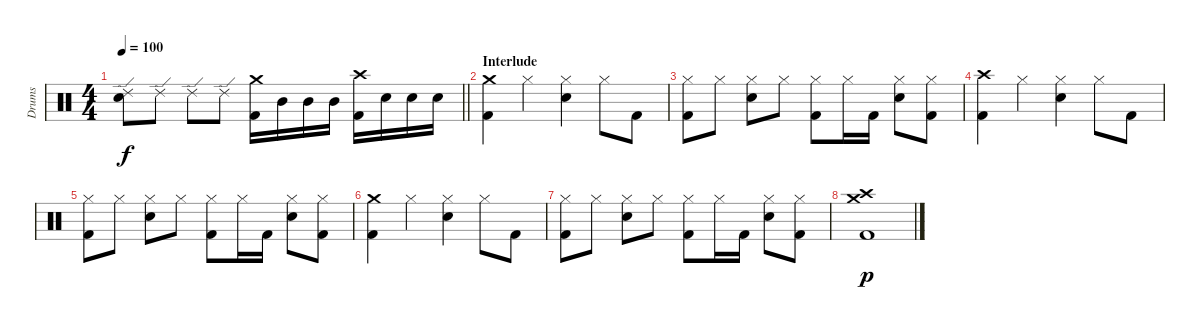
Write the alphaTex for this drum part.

\track ("Drums" "Drums") {instrument percussion}
\staff {score}
\articulation defaults
\ts (4 4)
\tempo 100
\clef neutral
\barLineRight lightlight
\ks c
("Snare (hit) 2" "Ride (edge) 2").8{dy f} "Ride (edge) 2".8 "Ride (edge) 2".8 "Ride (edge) 2".8 ("Kick (hit) 2" "Crash medium (hit)").16 "Mid Tom (hit)".16 "Mid Tom (hit)".16 "Mid Tom (hit)".16 ("Kick (hit) 2" "Crash high (hit)").16 "Snare (hit) 2".16 "Snare (hit) 2".16 "Snare (hit) 2".16 |
\section ("" "Interlude")
("Kick (hit) 2" "Crash medium (hit)").4 "Hi-Hat (closed)".4 ("Snare (hit) 2" "Hi-Hat (closed)").4 "Hi-Hat (closed)".8 "Kick (hit) 2".8 |
("Kick (hit) 2" "Hi-Hat (closed)").8 "Hi-Hat (closed)".8 ("Snare (hit) 2" "Hi-Hat (closed)").8 "Hi-Hat (closed)".8 ("Kick (hit) 2" "Hi-Hat (closed)").8 "Hi-Hat (closed)".16 "Kick (hit) 2".16 ("Snare (hit) 2" "Hi-Hat (closed)").8 ("Kick (hit) 2" "Hi-Hat (closed)").8 |
("Kick (hit) 2" "Crash high (hit)").4 "Hi-Hat (closed)".4 ("Snare (hit) 2" "Hi-Hat (closed)").4 "Hi-Hat (closed)".8 "Kick (hit) 2".8 |
("Kick (hit) 2" "Hi-Hat (closed)").8 "Hi-Hat (closed)".8 ("Snare (hit) 2" "Hi-Hat (closed)").8 "Hi-Hat (closed)".8 ("Kick (hit) 2" "Hi-Hat (closed)").8 "Hi-Hat (closed)".16 "Kick (hit) 2".16 ("Snare (hit) 2" "Hi-Hat (closed)").8 ("Kick (hit) 2" "Hi-Hat (closed)").8 |
("Kick (hit) 2" "Crash medium (hit)").4 "Hi-Hat (closed)".4 ("Snare (hit) 2" "Hi-Hat (closed)").4 "Hi-Hat (closed)".8 "Kick (hit) 2".8 |
("Kick (hit) 2" "Hi-Hat (closed)").8 "Hi-Hat (closed)".8 ("Snare (hit) 2" "Hi-Hat (closed)").8 "Hi-Hat (closed)".8 ("Kick (hit) 2" "Hi-Hat (closed)").8 "Hi-Hat (closed)".16 "Kick (hit) 2".16 ("Snare (hit) 2" "Hi-Hat (closed)").8 ("Kick (hit) 2" "Hi-Hat (closed)").8 |
("Kick (hit) 2" "Crash high (hit)" "Crash medium (hit)").1{dy p}
